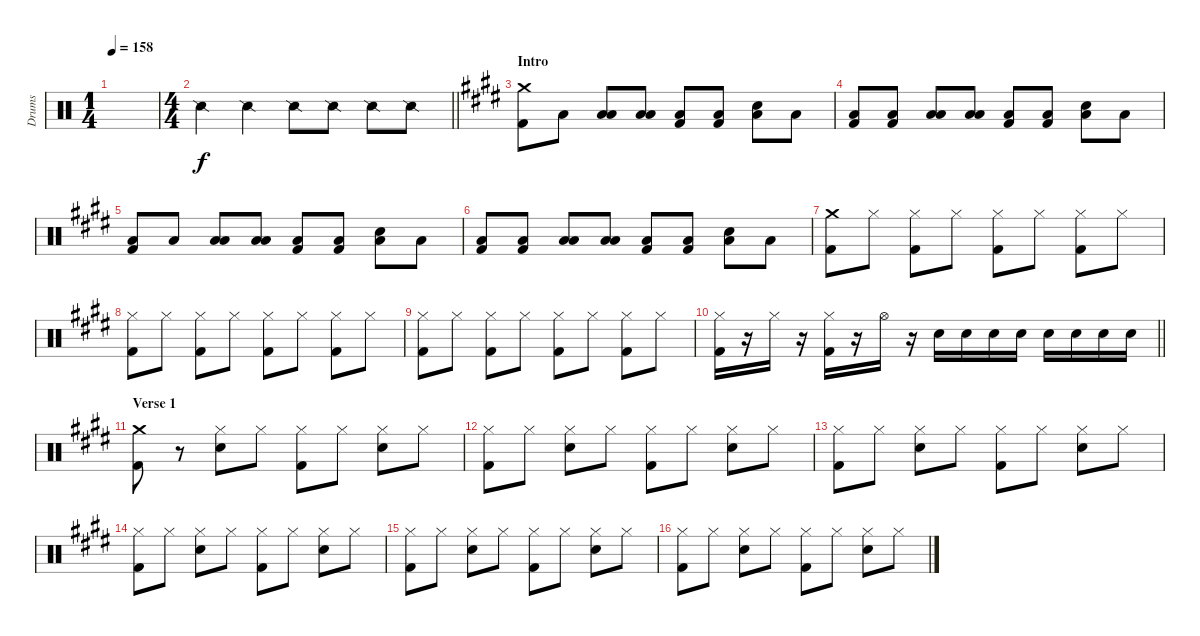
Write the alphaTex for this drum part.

\track ("Drums" "Drums") {instrument percussion}
\staff {score}
\articulation defaults
\ts (1 4)
\tempo 158
\clef neutral
\ks c
|
\ts (4 4)
\barLineRight lightlight "Snare (side stick) 2".4 "Snare (side stick) 2".4 "Snare (side stick) 2".8 "Snare (side stick) 2".8 "Snare (side stick) 2".8 "Snare (side stick) 2".8
|
\section ("" "Intro")
\ks e
("Crash medium (hit)" "Kick (hit) 2").8 "Low Floor Tom (hit)".8 ("Low Tom (hit)" "Low Floor Tom (hit)").8 ("Low Tom (hit)" "Low Floor Tom (hit)").8 ("Low Floor Tom (hit)" "Kick (hit) 2").8 ("Low Floor Tom (hit)" "Kick (hit) 2").8 ("Snare (hit) 2" "Low Floor Tom (hit)").8 "Low Floor Tom (hit)".8 |
\ks c#minor
("Low Floor Tom (hit)" "Kick (hit) 2").8 ("Low Floor Tom (hit)" "Kick (hit) 2").8 ("Low Tom (hit)" "Low Floor Tom (hit)").8 ("Low Tom (hit)" "Low Floor Tom (hit)").8 ("Low Floor Tom (hit)" "Kick (hit) 2").8 ("Low Floor Tom (hit)" "Kick (hit) 2").8 ("Snare (hit) 2" "Low Floor Tom (hit)").8 "Low Floor Tom (hit)".8 |
\ks e
("Low Floor Tom (hit)" "Kick (hit) 2").8 "Low Floor Tom (hit)".8 ("Low Tom (hit)" "Low Floor Tom (hit)").8 ("Low Tom (hit)" "Low Floor Tom (hit)").8 ("Low Floor Tom (hit)" "Kick (hit) 2").8 ("Low Floor Tom (hit)" "Kick (hit) 2").8 ("Snare (hit) 2" "Low Floor Tom (hit)").8 "Low Floor Tom (hit)".8 |
\ks c#minor
("Low Floor Tom (hit)" "Kick (hit) 2").8 ("Low Floor Tom (hit)" "Kick (hit) 2").8 ("Low Tom (hit)" "Low Floor Tom (hit)").8 ("Low Tom (hit)" "Low Floor Tom (hit)").8 ("Low Floor Tom (hit)" "Kick (hit) 2").8 ("Low Floor Tom (hit)" "Kick (hit) 2").8 ("Snare (hit) 2" "Low Floor Tom (hit)").8 "Low Floor Tom (hit)".8 |
\ks e
("Crash medium (hit)" "Kick (hit) 2").8 "Hi-Hat (closed)".8 ("Hi-Hat (closed)" "Kick (hit) 2").8 "Hi-Hat (closed)".8 ("Hi-Hat (closed)" "Kick (hit) 2").8 "Hi-Hat (closed)".8 ("Hi-Hat (closed)" "Kick (hit) 2").8 "Hi-Hat (closed)".8 |
\ks c#minor
("Hi-Hat (closed)" "Kick (hit) 2").8 "Hi-Hat (closed)".8 ("Hi-Hat (closed)" "Kick (hit) 2").8 "Hi-Hat (closed)".8 ("Hi-Hat (closed)" "Kick (hit) 2").8 "Hi-Hat (closed)".8 ("Hi-Hat (closed)" "Kick (hit) 2").8 "Hi-Hat (closed)".8 |
\ks e
("Hi-Hat (closed)" "Kick (hit) 2").8 "Hi-Hat (closed)".8 ("Hi-Hat (closed)" "Kick (hit) 2").8 "Hi-Hat (closed)".8 ("Hi-Hat (closed)" "Kick (hit) 2").8 "Hi-Hat (closed)".8 ("Hi-Hat (closed)" "Kick (hit) 2").8 "Hi-Hat (closed)".8 |
\barLineRight lightlight
\ks c#minor
("Hi-Hat (closed)" "Kick (hit) 2").16 r.16 "Hi-Hat (closed)".16 r.16 ("Hi-Hat (closed)" "Kick (hit) 2").16 r.16 "Hi-Hat (open)".16 r.16 "Snare (hit) 2".16 "Snare (hit) 2".16 "Snare (hit) 2".16 "Snare (hit) 2".16 "Snare (hit) 2".16 "Snare (hit) 2".16 "Snare (hit) 2".16 "Snare (hit) 2".16 |
\section ("" "Verse 1")
\ks e
("Crash medium (hit)" "Kick (hit) 2").8 r.8 ("Hi-Hat (closed)" "Snare (hit) 2").8 "Hi-Hat (closed)".8 ("Hi-Hat (closed)" "Kick (hit) 2").8 "Hi-Hat (closed)".8 ("Hi-Hat (closed)" "Snare (hit) 2").8 "Hi-Hat (closed)".8 |
\ks c#minor
("Hi-Hat (closed)" "Kick (hit) 2").8 "Hi-Hat (closed)".8 ("Hi-Hat (closed)" "Snare (hit) 2").8 "Hi-Hat (closed)".8 ("Hi-Hat (closed)" "Kick (hit) 2").8 "Hi-Hat (closed)".8 ("Hi-Hat (closed)" "Snare (hit) 2").8 "Hi-Hat (closed)".8 |
("Hi-Hat (closed)" "Kick (hit) 2").8 "Hi-Hat (closed)".8 ("Hi-Hat (closed)" "Snare (hit) 2").8 "Hi-Hat (closed)".8 ("Hi-Hat (closed)" "Kick (hit) 2").8 "Hi-Hat (closed)".8 ("Hi-Hat (closed)" "Snare (hit) 2").8 "Hi-Hat (closed)".8 |
("Hi-Hat (closed)" "Kick (hit) 2").8 "Hi-Hat (closed)".8 ("Hi-Hat (closed)" "Snare (hit) 2").8 "Hi-Hat (closed)".8 ("Hi-Hat (closed)" "Kick (hit) 2").8 "Hi-Hat (closed)".8 ("Hi-Hat (closed)" "Snare (hit) 2").8 "Hi-Hat (closed)".8 |
\ks e
("Hi-Hat (closed)" "Kick (hit) 2").8 "Hi-Hat (closed)".8 ("Hi-Hat (closed)" "Snare (hit) 2").8 "Hi-Hat (closed)".8 ("Hi-Hat (closed)" "Kick (hit) 2").8 "Hi-Hat (closed)".8 ("Hi-Hat (closed)" "Snare (hit) 2").8 "Hi-Hat (closed)".8 |
\ks c#minor
("Hi-Hat (closed)" "Kick (hit) 2").8 "Hi-Hat (closed)".8 ("Hi-Hat (closed)" "Snare (hit) 2").8 "Hi-Hat (closed)".8 ("Hi-Hat (closed)" "Kick (hit) 2").8 "Hi-Hat (closed)".8 ("Hi-Hat (closed)" "Snare (hit) 2").8 "Hi-Hat (closed)".8
